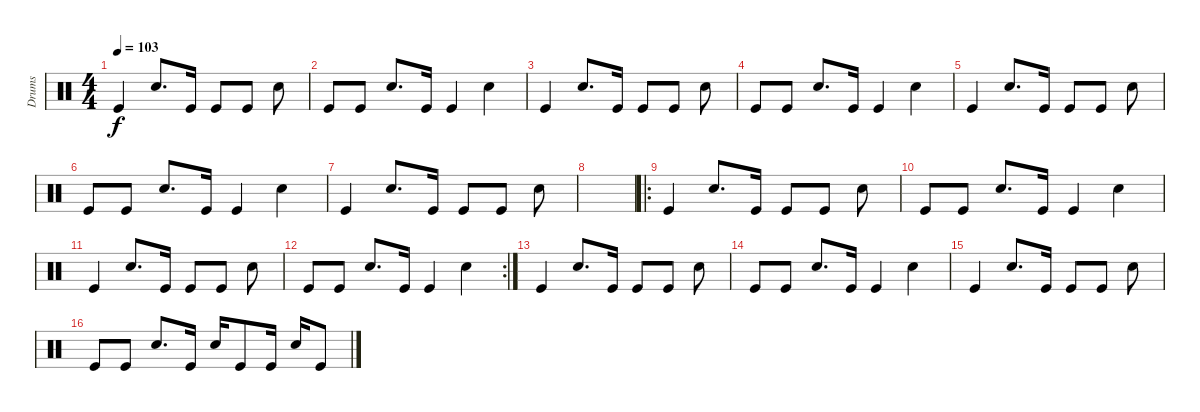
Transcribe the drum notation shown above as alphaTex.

\track ("Drums" "Drums") {instrument percussion}
\staff {score}
\articulation defaults
\ts (4 4)
\tempo 103
\clef neutral
\ks c "Kick (hit)".4{dy f} "Snare (hit) 2".8{d} "Kick (hit)".16 "Kick (hit)".8 "Kick (hit)".8 "Snare (hit) 2".8
|
"Kick (hit)".8 "Kick (hit)".8 "Snare (hit) 2".8{d} "Kick (hit)".16 "Kick (hit)".4 "Snare (hit) 2".4 |
"Kick (hit)".4 "Snare (hit) 2".8{d} "Kick (hit)".16 "Kick (hit)".8 "Kick (hit)".8 "Snare (hit) 2".8 |
"Kick (hit)".8 "Kick (hit)".8 "Snare (hit) 2".8{d} "Kick (hit)".16 "Kick (hit)".4 "Snare (hit) 2".4 |
"Kick (hit)".4 "Snare (hit) 2".8{d} "Kick (hit)".16 "Kick (hit)".8 "Kick (hit)".8 "Snare (hit) 2".8 |
"Kick (hit)".8 "Kick (hit)".8 "Snare (hit) 2".8{d} "Kick (hit)".16 "Kick (hit)".4 "Snare (hit) 2".4 |
"Kick (hit)".4 "Snare (hit) 2".8{d} "Kick (hit)".16 "Kick (hit)".8 "Kick (hit)".8 "Snare (hit) 2".8 |
|
\ro "Kick (hit)".4 "Snare (hit) 2".8{d} "Kick (hit)".16 "Kick (hit)".8 "Kick (hit)".8 "Snare (hit) 2".8
|
"Kick (hit)".8 "Kick (hit)".8 "Snare (hit) 2".8{d} "Kick (hit)".16 "Kick (hit)".4 "Snare (hit) 2".4 |
"Kick (hit)".4 "Snare (hit) 2".8{d} "Kick (hit)".16 "Kick (hit)".8 "Kick (hit)".8 "Snare (hit) 2".8 |
\rc 2 "Kick (hit)".8 "Kick (hit)".8 "Snare (hit) 2".8{d} "Kick (hit)".16 "Kick (hit)".4 "Snare (hit) 2".4
|
"Kick (hit)".4 "Snare (hit) 2".8{d} "Kick (hit)".16 "Kick (hit)".8 "Kick (hit)".8 "Snare (hit) 2".8 |
"Kick (hit)".8 "Kick (hit)".8 "Snare (hit) 2".8{d} "Kick (hit)".16 "Kick (hit)".4 "Snare (hit) 2".4 |
"Kick (hit)".4 "Snare (hit) 2".8{d} "Kick (hit)".16 "Kick (hit)".8 "Kick (hit)".8 "Snare (hit) 2".8 |
"Kick (hit)".8 "Kick (hit)".8 "Snare (hit) 2".8{d} "Kick (hit)".16 "Snare (hit) 2".16 "Kick (hit)".8 "Kick (hit)".16 "Snare (hit) 2".16 "Kick (hit)".8
